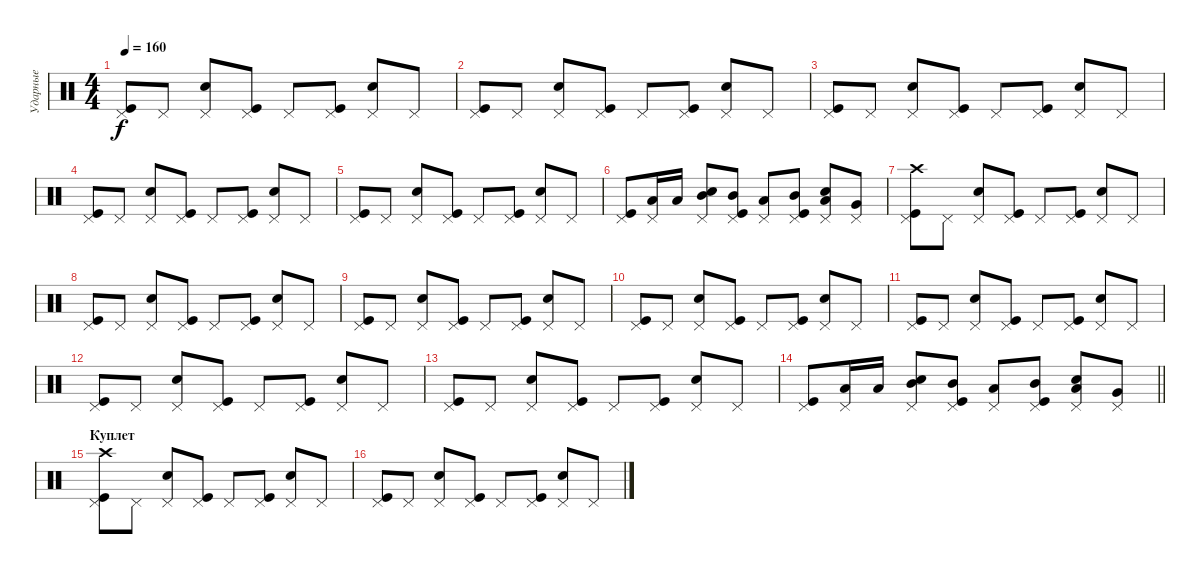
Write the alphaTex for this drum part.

\track ("Ударные" "Ударные") {instrument percussion}
\staff {score}
\articulation defaults
\ts (4 4)
\tempo 160
\clef neutral
\ks c
("Pedal Hi-Hat (hit)" "Kick (hit)").8{dy f} "Pedal Hi-Hat (hit)".8 ("Pedal Hi-Hat (hit)" "Snare (hit) 2").8 ("Pedal Hi-Hat (hit)" "Kick (hit)").8 "Pedal Hi-Hat (hit)".8 ("Pedal Hi-Hat (hit)" "Kick (hit)").8 ("Pedal Hi-Hat (hit)" "Snare (hit) 2").8 "Pedal Hi-Hat (hit)".8 |
("Pedal Hi-Hat (hit)" "Kick (hit)").8 "Pedal Hi-Hat (hit)".8 ("Pedal Hi-Hat (hit)" "Snare (hit) 2").8 ("Pedal Hi-Hat (hit)" "Kick (hit)").8 "Pedal Hi-Hat (hit)".8 ("Pedal Hi-Hat (hit)" "Kick (hit)").8 ("Pedal Hi-Hat (hit)" "Snare (hit) 2").8 "Pedal Hi-Hat (hit)".8 |
("Pedal Hi-Hat (hit)" "Kick (hit)").8 "Pedal Hi-Hat (hit)".8 ("Pedal Hi-Hat (hit)" "Snare (hit) 2").8 ("Pedal Hi-Hat (hit)" "Kick (hit)").8 "Pedal Hi-Hat (hit)".8 ("Pedal Hi-Hat (hit)" "Kick (hit)").8 ("Pedal Hi-Hat (hit)" "Snare (hit) 2").8 "Pedal Hi-Hat (hit)".8 |
("Pedal Hi-Hat (hit)" "Kick (hit)").8 "Pedal Hi-Hat (hit)".8 ("Pedal Hi-Hat (hit)" "Snare (hit) 2").8 ("Pedal Hi-Hat (hit)" "Kick (hit)").8 "Pedal Hi-Hat (hit)".8 ("Pedal Hi-Hat (hit)" "Kick (hit)").8 ("Pedal Hi-Hat (hit)" "Snare (hit) 2").8 "Pedal Hi-Hat (hit)".8 |
("Pedal Hi-Hat (hit)" "Kick (hit)").8 "Pedal Hi-Hat (hit)".8 ("Pedal Hi-Hat (hit)" "Snare (hit) 2").8 ("Pedal Hi-Hat (hit)" "Kick (hit)").8 "Pedal Hi-Hat (hit)".8 ("Pedal Hi-Hat (hit)" "Kick (hit)").8 ("Pedal Hi-Hat (hit)" "Snare (hit) 2").8 "Pedal Hi-Hat (hit)".8 |
("Pedal Hi-Hat (hit)" "Kick (hit)").8 ("Pedal Hi-Hat (hit)" "Low Tom (hit)").16 "Low Tom (hit)".16 ("Pedal Hi-Hat (hit)" "Mid Tom (hit)" "Snare (hit) 2").8 ("Pedal Hi-Hat (hit)" "Mid Tom (hit)" "Kick (hit)").8 ("Pedal Hi-Hat (hit)" "Low Tom (hit)").8 ("Pedal Hi-Hat (hit)" "Mid Tom (hit)" "Kick (hit)").8 ("Pedal Hi-Hat (hit)" "Low Tom (hit)" "Snare (hit) 2").8 ("Pedal Hi-Hat (hit)" "Very Low Tom (hit)").8 |
("Pedal Hi-Hat (hit)" "Crash high (hit)" "Kick (hit)").8 "Pedal Hi-Hat (hit)".8 ("Pedal Hi-Hat (hit)" "Snare (hit) 2").8 ("Pedal Hi-Hat (hit)" "Kick (hit)").8 "Pedal Hi-Hat (hit)".8 ("Pedal Hi-Hat (hit)" "Kick (hit)").8 ("Pedal Hi-Hat (hit)" "Snare (hit) 2").8 "Pedal Hi-Hat (hit)".8 |
("Pedal Hi-Hat (hit)" "Kick (hit)").8 "Pedal Hi-Hat (hit)".8 ("Pedal Hi-Hat (hit)" "Snare (hit) 2").8 ("Pedal Hi-Hat (hit)" "Kick (hit)").8 "Pedal Hi-Hat (hit)".8 ("Pedal Hi-Hat (hit)" "Kick (hit)").8 ("Pedal Hi-Hat (hit)" "Snare (hit) 2").8 "Pedal Hi-Hat (hit)".8 |
("Pedal Hi-Hat (hit)" "Kick (hit)").8 "Pedal Hi-Hat (hit)".8 ("Pedal Hi-Hat (hit)" "Snare (hit) 2").8 ("Pedal Hi-Hat (hit)" "Kick (hit)").8 "Pedal Hi-Hat (hit)".8 ("Pedal Hi-Hat (hit)" "Kick (hit)").8 ("Pedal Hi-Hat (hit)" "Snare (hit) 2").8 "Pedal Hi-Hat (hit)".8 |
("Pedal Hi-Hat (hit)" "Kick (hit)").8 "Pedal Hi-Hat (hit)".8 ("Pedal Hi-Hat (hit)" "Snare (hit) 2").8 ("Pedal Hi-Hat (hit)" "Kick (hit)").8 "Pedal Hi-Hat (hit)".8 ("Pedal Hi-Hat (hit)" "Kick (hit)").8 ("Pedal Hi-Hat (hit)" "Snare (hit) 2").8 "Pedal Hi-Hat (hit)".8 |
("Pedal Hi-Hat (hit)" "Kick (hit)").8 "Pedal Hi-Hat (hit)".8 ("Pedal Hi-Hat (hit)" "Snare (hit) 2").8 ("Pedal Hi-Hat (hit)" "Kick (hit)").8 "Pedal Hi-Hat (hit)".8 ("Pedal Hi-Hat (hit)" "Kick (hit)").8 ("Pedal Hi-Hat (hit)" "Snare (hit) 2").8 "Pedal Hi-Hat (hit)".8 |
("Pedal Hi-Hat (hit)" "Kick (hit)").8 "Pedal Hi-Hat (hit)".8 ("Pedal Hi-Hat (hit)" "Snare (hit) 2").8 ("Pedal Hi-Hat (hit)" "Kick (hit)").8 "Pedal Hi-Hat (hit)".8 ("Pedal Hi-Hat (hit)" "Kick (hit)").8 ("Pedal Hi-Hat (hit)" "Snare (hit) 2").8 "Pedal Hi-Hat (hit)".8 |
("Pedal Hi-Hat (hit)" "Kick (hit)").8 "Pedal Hi-Hat (hit)".8 ("Pedal Hi-Hat (hit)" "Snare (hit) 2").8 ("Pedal Hi-Hat (hit)" "Kick (hit)").8 "Pedal Hi-Hat (hit)".8 ("Pedal Hi-Hat (hit)" "Kick (hit)").8 ("Pedal Hi-Hat (hit)" "Snare (hit) 2").8 "Pedal Hi-Hat (hit)".8 |
\barLineRight lightlight
("Pedal Hi-Hat (hit)" "Kick (hit)").8 ("Pedal Hi-Hat (hit)" "Low Tom (hit)").16 "Low Tom (hit)".16 ("Pedal Hi-Hat (hit)" "Mid Tom (hit)" "Snare (hit) 2").8 ("Pedal Hi-Hat (hit)" "Mid Tom (hit)" "Kick (hit)").8 ("Pedal Hi-Hat (hit)" "Low Tom (hit)").8 ("Pedal Hi-Hat (hit)" "Mid Tom (hit)" "Kick (hit)").8 ("Pedal Hi-Hat (hit)" "Low Tom (hit)" "Snare (hit) 2").8 ("Pedal Hi-Hat (hit)" "Very Low Tom (hit)").8 |
\section ("" "Куплет")
("Pedal Hi-Hat (hit)" "Crash high (hit)" "Kick (hit)").8 "Pedal Hi-Hat (hit)".8 ("Pedal Hi-Hat (hit)" "Snare (hit) 2").8 ("Pedal Hi-Hat (hit)" "Kick (hit)").8 "Pedal Hi-Hat (hit)".8 ("Pedal Hi-Hat (hit)" "Kick (hit)").8 ("Pedal Hi-Hat (hit)" "Snare (hit) 2").8 "Pedal Hi-Hat (hit)".8 |
("Pedal Hi-Hat (hit)" "Kick (hit)").8 "Pedal Hi-Hat (hit)".8 ("Pedal Hi-Hat (hit)" "Snare (hit) 2").8 ("Pedal Hi-Hat (hit)" "Kick (hit)").8 "Pedal Hi-Hat (hit)".8 ("Pedal Hi-Hat (hit)" "Kick (hit)").8 ("Pedal Hi-Hat (hit)" "Snare (hit) 2").8 "Pedal Hi-Hat (hit)".8
